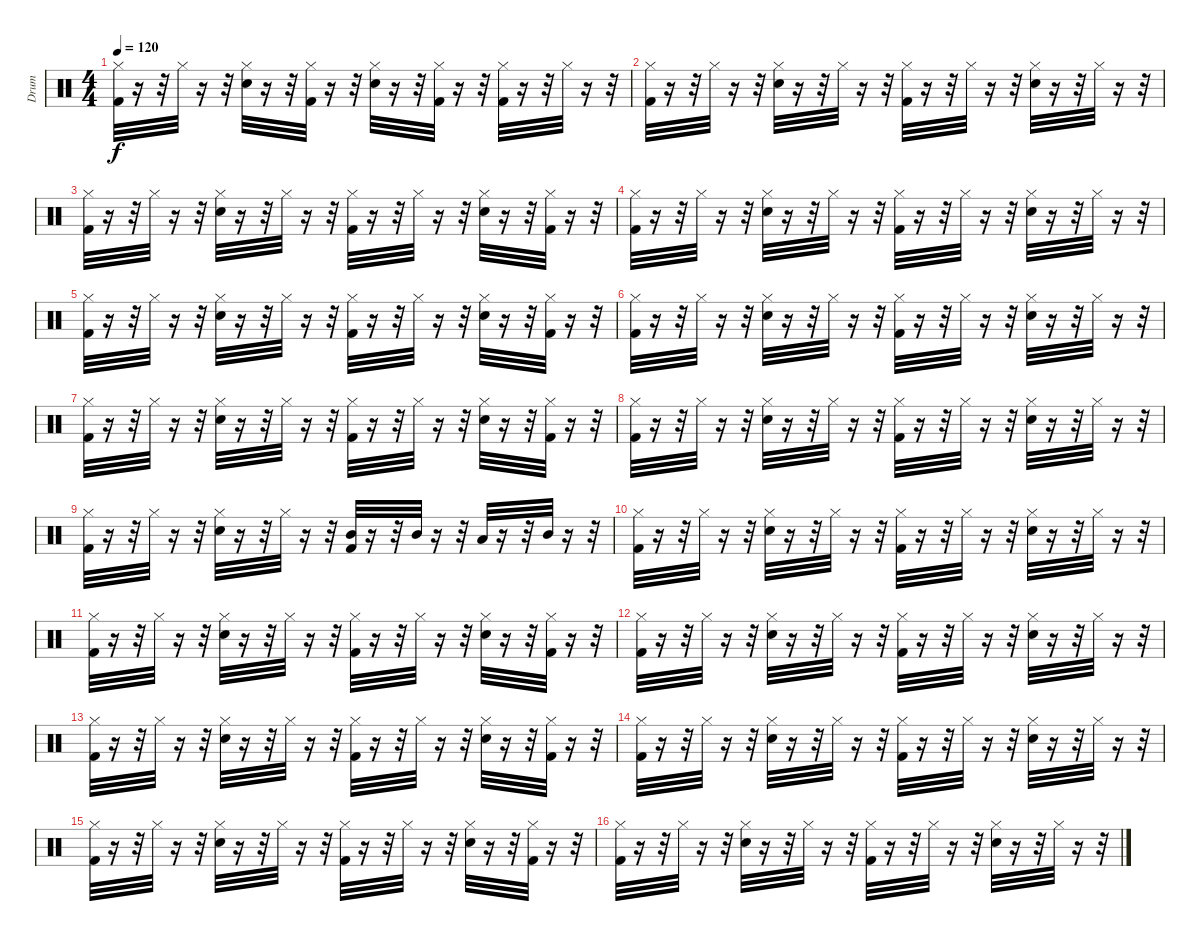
\track ("Drum" "Drum") {instrument percussion}
\staff {score}
\articulation defaults
\ts (4 4)
\tempo 120
\clef neutral
\ks c
("Kick (hit) 2" "Hi-Hat (closed)").32{dy f} r.16 r.32 "Hi-Hat (closed)".32 r.16 r.32 ("Snare (hit) 2" "Hi-Hat (closed)").32 r.16 r.32 ("Kick (hit) 2" "Hi-Hat (closed)").32 r.16 r.32 ("Snare (hit) 2" "Hi-Hat (closed)").32 r.16 r.32 ("Kick (hit) 2" "Hi-Hat (closed)").32 r.16 r.32 ("Kick (hit) 2" "Hi-Hat (closed)").32 r.16 r.32 "Hi-Hat (closed)".32 r.16 r.32 |
("Kick (hit) 2" "Hi-Hat (closed)").32 r.16 r.32 "Hi-Hat (closed)".32 r.16 r.32 ("Snare (hit) 2" "Hi-Hat (closed)").32 r.16 r.32 "Hi-Hat (closed)".32 r.16 r.32 ("Kick (hit) 2" "Hi-Hat (closed)").32 r.16 r.32 "Hi-Hat (closed)".32 r.16 r.32 ("Snare (hit) 2" "Hi-Hat (closed)").32 r.16 r.32 "Hi-Hat (closed)".32 r.16 r.32 |
("Kick (hit) 2" "Hi-Hat (closed)").32 r.16 r.32 "Hi-Hat (closed)".32 r.16 r.32 ("Snare (hit) 2" "Hi-Hat (closed)").32 r.16 r.32 "Hi-Hat (closed)".32 r.16 r.32 ("Kick (hit) 2" "Hi-Hat (closed)").32 r.16 r.32 "Hi-Hat (closed)".32 r.16 r.32 ("Snare (hit) 2" "Hi-Hat (closed)").32 r.16 r.32 ("Kick (hit) 2" "Hi-Hat (closed)").32 r.16 r.32 |
("Kick (hit) 2" "Hi-Hat (closed)").32 r.16 r.32 "Hi-Hat (closed)".32 r.16 r.32 ("Snare (hit) 2" "Hi-Hat (closed)").32 r.16 r.32 "Hi-Hat (closed)".32 r.16 r.32 ("Kick (hit) 2" "Hi-Hat (closed)").32 r.16 r.32 "Hi-Hat (closed)".32 r.16 r.32 ("Snare (hit) 2" "Hi-Hat (closed)").32 r.16 r.32 "Hi-Hat (closed)".32 r.16 r.32 |
("Kick (hit) 2" "Hi-Hat (closed)").32 r.16 r.32 "Hi-Hat (closed)".32 r.16 r.32 ("Snare (hit) 2" "Hi-Hat (closed)").32 r.16 r.32 "Hi-Hat (closed)".32 r.16 r.32 ("Kick (hit) 2" "Hi-Hat (closed)").32 r.16 r.32 "Hi-Hat (closed)".32 r.16 r.32 ("Snare (hit) 2" "Hi-Hat (closed)").32 r.16 r.32 ("Kick (hit) 2" "Hi-Hat (closed)").32 r.16 r.32 |
("Kick (hit) 2" "Hi-Hat (closed)").32 r.16 r.32 "Hi-Hat (closed)".32 r.16 r.32 ("Snare (hit) 2" "Hi-Hat (closed)").32 r.16 r.32 "Hi-Hat (closed)".32 r.16 r.32 ("Kick (hit) 2" "Hi-Hat (closed)").32 r.16 r.32 "Hi-Hat (closed)".32 r.16 r.32 ("Snare (hit) 2" "Hi-Hat (closed)").32 r.16 r.32 "Hi-Hat (closed)".32 r.16 r.32 |
("Kick (hit) 2" "Hi-Hat (closed)").32 r.16 r.32 "Hi-Hat (closed)".32 r.16 r.32 ("Snare (hit) 2" "Hi-Hat (closed)").32 r.16 r.32 "Hi-Hat (closed)".32 r.16 r.32 ("Kick (hit) 2" "Hi-Hat (closed)").32 r.16 r.32 "Hi-Hat (closed)".32 r.16 r.32 ("Snare (hit) 2" "Hi-Hat (closed)").32 r.16 r.32 ("Kick (hit) 2" "Hi-Hat (closed)").32 r.16 r.32 |
("Kick (hit) 2" "Hi-Hat (closed)").32 r.16 r.32 "Hi-Hat (closed)".32 r.16 r.32 ("Snare (hit) 2" "Hi-Hat (closed)").32 r.16 r.32 "Hi-Hat (closed)".32 r.16 r.32 ("Kick (hit) 2" "Hi-Hat (closed)").32 r.16 r.32 "Hi-Hat (closed)".32 r.16 r.32 ("Snare (hit) 2" "Hi-Hat (closed)").32 r.16 r.32 "Hi-Hat (closed)".32 r.16 r.32 |
("Kick (hit) 2" "Hi-Hat (closed)").32 r.16 r.32 "Hi-Hat (closed)".32 r.16 r.32 ("Snare (hit) 2" "Hi-Hat (closed)").32 r.16 r.32 "Hi-Hat (closed)".32 r.16 r.32 ("Kick (hit) 2" "Mid Tom (hit)").32 r.16 r.32 "Mid Tom (hit)".32 r.16 r.32 "Low Tom (hit)".32 r.16 r.32 "Mid Tom (hit)".32 r.16 r.32 |
("Kick (hit) 2" "Hi-Hat (closed)").32 r.16 r.32 "Hi-Hat (closed)".32 r.16 r.32 ("Snare (hit) 2" "Hi-Hat (closed)").32 r.16 r.32 "Hi-Hat (closed)".32 r.16 r.32 ("Kick (hit) 2" "Hi-Hat (closed)").32 r.16 r.32 "Hi-Hat (closed)".32 r.16 r.32 ("Snare (hit) 2" "Hi-Hat (closed)").32 r.16 r.32 "Hi-Hat (closed)".32 r.16 r.32 |
("Kick (hit) 2" "Hi-Hat (closed)").32 r.16 r.32 "Hi-Hat (closed)".32 r.16 r.32 ("Snare (hit) 2" "Hi-Hat (closed)").32 r.16 r.32 "Hi-Hat (closed)".32 r.16 r.32 ("Kick (hit) 2" "Hi-Hat (closed)").32 r.16 r.32 "Hi-Hat (closed)".32 r.16 r.32 ("Snare (hit) 2" "Hi-Hat (closed)").32 r.16 r.32 ("Kick (hit) 2" "Hi-Hat (closed)").32 r.16 r.32 |
("Kick (hit) 2" "Hi-Hat (closed)").32 r.16 r.32 "Hi-Hat (closed)".32 r.16 r.32 ("Snare (hit) 2" "Hi-Hat (closed)").32 r.16 r.32 "Hi-Hat (closed)".32 r.16 r.32 ("Kick (hit) 2" "Hi-Hat (closed)").32 r.16 r.32 "Hi-Hat (closed)".32 r.16 r.32 ("Snare (hit) 2" "Hi-Hat (closed)").32 r.16 r.32 "Hi-Hat (closed)".32 r.16 r.32 |
("Kick (hit) 2" "Hi-Hat (closed)").32 r.16 r.32 "Hi-Hat (closed)".32 r.16 r.32 ("Snare (hit) 2" "Hi-Hat (closed)").32 r.16 r.32 "Hi-Hat (closed)".32 r.16 r.32 ("Kick (hit) 2" "Hi-Hat (closed)").32 r.16 r.32 "Hi-Hat (closed)".32 r.16 r.32 ("Snare (hit) 2" "Hi-Hat (closed)").32 r.16 r.32 ("Kick (hit) 2" "Hi-Hat (closed)").32 r.16 r.32 |
("Kick (hit) 2" "Hi-Hat (closed)").32 r.16 r.32 "Hi-Hat (closed)".32 r.16 r.32 ("Snare (hit) 2" "Hi-Hat (closed)").32 r.16 r.32 "Hi-Hat (closed)".32 r.16 r.32 ("Kick (hit) 2" "Hi-Hat (closed)").32 r.16 r.32 "Hi-Hat (closed)".32 r.16 r.32 ("Snare (hit) 2" "Hi-Hat (closed)").32 r.16 r.32 "Hi-Hat (closed)".32 r.16 r.32 |
("Kick (hit) 2" "Hi-Hat (closed)").32 r.16 r.32 "Hi-Hat (closed)".32 r.16 r.32 ("Snare (hit) 2" "Hi-Hat (closed)").32 r.16 r.32 "Hi-Hat (closed)".32 r.16 r.32 ("Kick (hit) 2" "Hi-Hat (closed)").32 r.16 r.32 "Hi-Hat (closed)".32 r.16 r.32 ("Snare (hit) 2" "Hi-Hat (closed)").32 r.16 r.32 ("Kick (hit) 2" "Hi-Hat (closed)").32 r.16 r.32 |
("Kick (hit) 2" "Hi-Hat (closed)").32 r.16 r.32 "Hi-Hat (closed)".32 r.16 r.32 ("Snare (hit) 2" "Hi-Hat (closed)").32 r.16 r.32 "Hi-Hat (closed)".32 r.16 r.32 ("Kick (hit) 2" "Hi-Hat (closed)").32 r.16 r.32 "Hi-Hat (closed)".32 r.16 r.32 ("Snare (hit) 2" "Hi-Hat (closed)").32 r.16 r.32 "Hi-Hat (closed)".32 r.16 r.32
